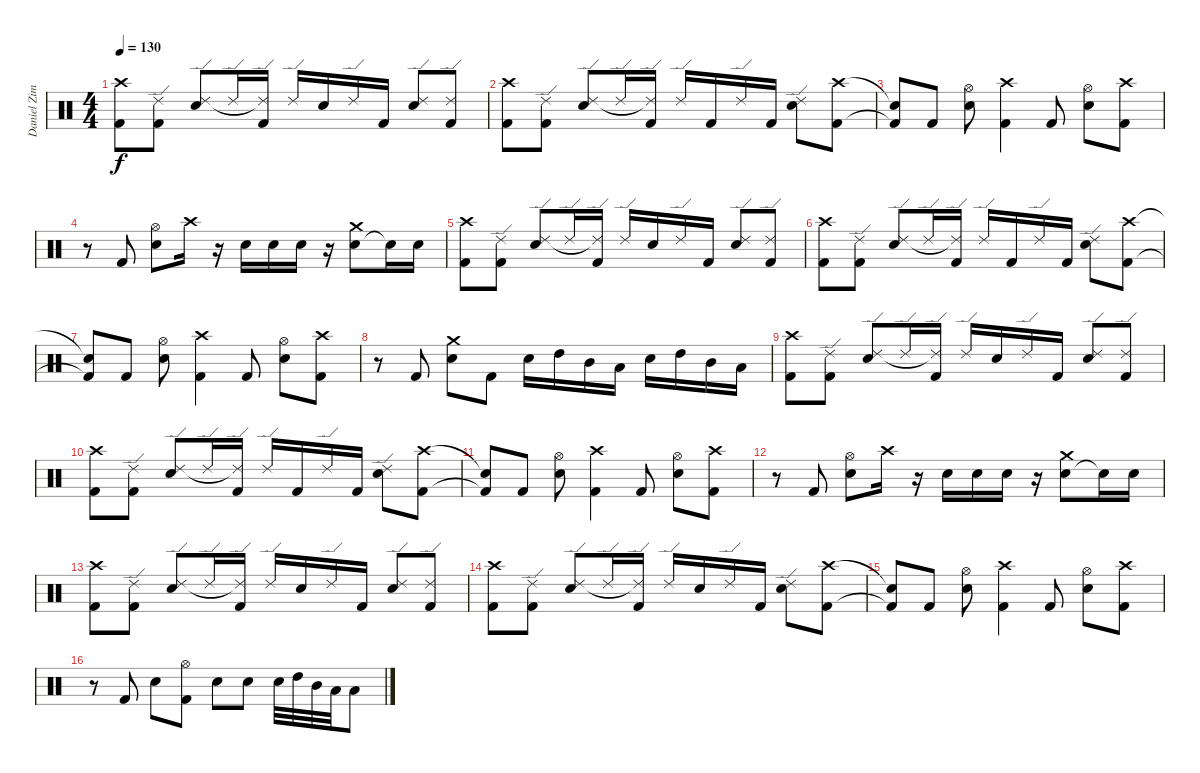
\track ("Daniel Zimmermann" "Daniel Zim") {instrument percussion}
\staff {score}
\articulation defaults
\ts (4 4)
\tempo 130
\clef neutral
\ks c
("Kick (hit) 2" "Crash high (hit)").8{dy f} ("Kick (hit) 2" "Ride (edge) 2").8 ("Electric Snare (hit)" "Ride (edge) 2").8 "Ride (edge) 2".16 ("Kick (hit) 2" "Ride (edge) 2"{t}).16 "Ride (edge) 2".16 "Electric Snare (hit)".16 "Ride (edge) 2".16 "Kick (hit) 2".16 ("Electric Snare (hit)" "Ride (edge) 2").8 ("Kick (hit) 2" "Ride (edge) 2").8 |
("Kick (hit) 2" "Crash high (hit)").8 ("Kick (hit) 2" "Ride (edge) 2").8 ("Electric Snare (hit)" "Ride (edge) 2").8 "Ride (edge) 2".16 ("Kick (hit) 2" "Ride (edge) 2"{t}).16 "Ride (edge) 2".16 "Kick (hit) 2".16 "Ride (edge) 2".16 "Kick (hit) 2".16 ("Electric Snare (hit)" "Ride (edge) 2").8 ("Kick (hit) 2" "Crash high (hit)").8 |
("Kick (hit) 2"{t} "Snare (hit)"{t}).8 "Kick (hit) 2".8 ("Electric Snare (hit)" "Hi-Hat (open)").8 ("Kick (hit) 2" "Crash high (hit)").4 "Kick (hit) 2".8 ("Electric Snare (hit)" "Hi-Hat (open)").8 ("Kick (hit) 2" "Crash high (hit)").8 |
r.8 "Kick (hit) 2".8 ("Electric Snare (hit)" "Hi-Hat (open)").8 "Crash high (hit)".16 r.16 "Electric Snare (hit)".16 "Electric Snare (hit)".16 "Electric Snare (hit)".16 r.16 ("Electric Snare (hit)" "Crash medium (hit)").8 "Snare (hit)"{t}.16 "Electric Snare (hit)".16 |
("Kick (hit) 2" "Crash high (hit)").8 ("Kick (hit) 2" "Ride (edge) 2").8 ("Electric Snare (hit)" "Ride (edge) 2").8 "Ride (edge) 2".16 ("Kick (hit) 2" "Ride (edge) 2"{t}).16 "Ride (edge) 2".16 "Electric Snare (hit)".16 "Ride (edge) 2".16 "Kick (hit) 2".16 ("Electric Snare (hit)" "Ride (edge) 2").8 ("Kick (hit) 2" "Ride (edge) 2").8 |
("Kick (hit) 2" "Crash high (hit)").8 ("Kick (hit) 2" "Ride (edge) 2").8 ("Electric Snare (hit)" "Ride (edge) 2").8 "Ride (edge) 2".16 ("Kick (hit) 2" "Ride (edge) 2"{t}).16 "Ride (edge) 2".16 "Kick (hit) 2".16 "Ride (edge) 2".16 "Kick (hit) 2".16 ("Electric Snare (hit)" "Ride (edge) 2").8 ("Kick (hit) 2" "Crash high (hit)").8 |
("Kick (hit) 2"{t} "Snare (hit)"{t}).8 "Kick (hit) 2".8 ("Electric Snare (hit)" "Hi-Hat (open)").8 ("Kick (hit) 2" "Crash high (hit)").4 "Kick (hit) 2".8 ("Electric Snare (hit)" "Hi-Hat (open)").8 ("Kick (hit) 2" "Crash high (hit)").8 |
r.8 "Kick (hit) 2".8 ("Crash medium (hit)" "Electric Snare (hit)").8 "Kick (hit) 2".8 "Electric Snare (hit)".16 "High Tom (hit)".16 "Mid Tom (hit)".16 "Low Tom (hit)".16 "Electric Snare (hit)".16 "High Tom (hit)".16 "Mid Tom (hit)".16 "Low Tom (hit)".16 |
("Kick (hit) 2" "Crash high (hit)").8 ("Kick (hit) 2" "Ride (edge) 2").8 ("Electric Snare (hit)" "Ride (edge) 2").8 "Ride (edge) 2".16 ("Kick (hit) 2" "Ride (edge) 2"{t}).16 "Ride (edge) 2".16 "Electric Snare (hit)".16 "Ride (edge) 2".16 "Kick (hit) 2".16 ("Electric Snare (hit)" "Ride (edge) 2").8 ("Kick (hit) 2" "Ride (edge) 2").8 |
("Kick (hit) 2" "Crash high (hit)").8 ("Kick (hit) 2" "Ride (edge) 2").8 ("Electric Snare (hit)" "Ride (edge) 2").8 "Ride (edge) 2".16 ("Kick (hit) 2" "Ride (edge) 2"{t}).16 "Ride (edge) 2".16 "Kick (hit) 2".16 "Ride (edge) 2".16 "Kick (hit) 2".16 ("Electric Snare (hit)" "Ride (edge) 2").8 ("Kick (hit) 2" "Crash high (hit)").8 |
("Kick (hit) 2"{t} "Snare (hit)"{t}).8 "Kick (hit) 2".8 ("Electric Snare (hit)" "Hi-Hat (open)").8 ("Kick (hit) 2" "Crash high (hit)").4 "Kick (hit) 2".8 ("Electric Snare (hit)" "Hi-Hat (open)").8 ("Kick (hit) 2" "Crash high (hit)").8 |
r.8 "Kick (hit) 2".8 ("Electric Snare (hit)" "Hi-Hat (open)").8 "Crash high (hit)".16 r.16 "Electric Snare (hit)".16 "Electric Snare (hit)".16 "Electric Snare (hit)".16 r.16 ("Electric Snare (hit)" "Crash medium (hit)").8 "Snare (hit)"{t}.16 "Electric Snare (hit)".16 |
("Kick (hit) 2" "Crash high (hit)").8 ("Kick (hit) 2" "Ride (edge) 2").8 ("Electric Snare (hit)" "Ride (edge) 2").8 "Ride (edge) 2".16 ("Kick (hit) 2" "Ride (edge) 2"{t}).16 "Ride (edge) 2".16 "Electric Snare (hit)".16 "Ride (edge) 2".16 "Kick (hit) 2".16 ("Electric Snare (hit)" "Ride (edge) 2").8 ("Kick (hit) 2" "Ride (edge) 2").8 |
("Kick (hit) 2" "Crash high (hit)").8 ("Kick (hit) 2" "Ride (edge) 2").8 ("Electric Snare (hit)" "Ride (edge) 2").8 "Ride (edge) 2".16 ("Kick (hit) 2" "Ride (edge) 2"{t}).16 "Ride (edge) 2".16 "Electric Snare (hit)".16 "Ride (edge) 2".16 "Kick (hit) 2".16 ("Electric Snare (hit)" "Ride (edge) 2").8 ("Kick (hit) 2" "Crash high (hit)").8 |
("Kick (hit) 2"{t} "Snare (hit)"{t}).8 "Kick (hit) 2".8 ("Electric Snare (hit)" "Hi-Hat (open)").8 ("Kick (hit) 2" "Crash high (hit)").4 "Kick (hit) 2".8 ("Electric Snare (hit)" "Hi-Hat (open)").8 ("Kick (hit) 2" "Crash high (hit)").8 |
r.8 "Kick (hit) 2".8 "Electric Snare (hit)".8 ("Kick (hit) 2" "Hi-Hat (open)").8 "Electric Snare (hit)".8 "Electric Snare (hit)".8 "Electric Snare (hit)".32 "High Tom (hit)".32 "Mid Tom (hit)".32 "Low Tom (hit)".32 "Low Floor Tom (hit)".8
